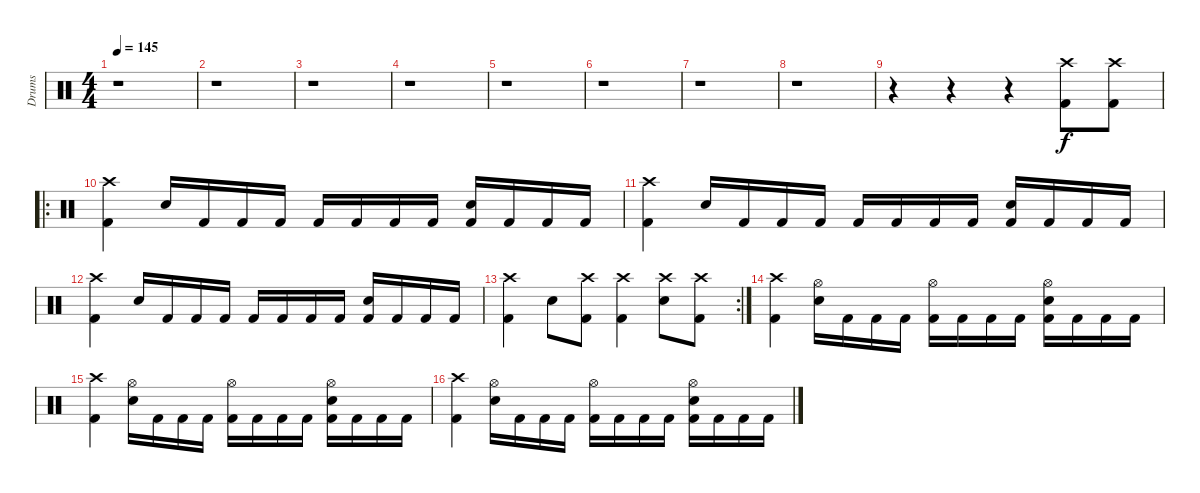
\track ("Drums" "Drums") {instrument percussion}
\staff {score}
\articulation defaults
\ts (4 4)
\tempo 145
\clef neutral
\ks c
r.1{dy f} |
r.1 |
r.1 |
r.1 |
r.1 |
r.1 |
r.1 |
r.1 |
r.4 r.4 r.4 ("Crash high (hit)" "Kick (hit) 2").8 ("Crash high (hit)" "Kick (hit) 2").8 |
\ro
("Crash high (hit)" "Kick (hit) 2").4 "Snare (hit) 2".16 "Kick (hit) 2".16 "Kick (hit) 2".16 "Kick (hit) 2".16 "Kick (hit) 2".16 "Kick (hit) 2".16 "Kick (hit) 2".16 "Kick (hit) 2".16 ("Snare (hit) 2" "Kick (hit) 2").16 "Kick (hit) 2".16 "Kick (hit) 2".16 "Kick (hit) 2".16 |
("Crash high (hit)" "Kick (hit) 2").4 "Snare (hit) 2".16 "Kick (hit) 2".16 "Kick (hit) 2".16 "Kick (hit) 2".16 "Kick (hit) 2".16 "Kick (hit) 2".16 "Kick (hit) 2".16 "Kick (hit) 2".16 ("Snare (hit) 2" "Kick (hit) 2").16 "Kick (hit) 2".16 "Kick (hit) 2".16 "Kick (hit) 2".16 |
("Crash high (hit)" "Kick (hit) 2").4 "Snare (hit) 2".16 "Kick (hit) 2".16 "Kick (hit) 2".16 "Kick (hit) 2".16 "Kick (hit) 2".16 "Kick (hit) 2".16 "Kick (hit) 2".16 "Kick (hit) 2".16 ("Snare (hit) 2" "Kick (hit) 2").16 "Kick (hit) 2".16 "Kick (hit) 2".16 "Kick (hit) 2".16 |
\rc 2
("Crash high (hit)" "Kick (hit) 2").4 "Snare (hit) 2".8 ("Crash high (hit)" "Kick (hit) 2").8 ("Crash high (hit)" "Kick (hit) 2").4 ("Crash high (hit)" "Snare (hit) 2").8 ("Crash high (hit)" "Kick (hit) 2").8 |
("Crash high (hit)" "Kick (hit) 2").4 ("Hi-Hat (open)" "Snare (hit) 2").16 "Kick (hit) 2".16 "Kick (hit) 2".16 "Kick (hit) 2".16 ("Hi-Hat (open)" "Kick (hit) 2").16 "Kick (hit) 2".16 "Kick (hit) 2".16 "Kick (hit) 2".16 ("Hi-Hat (open)" "Snare (hit) 2" "Kick (hit) 2").16 "Kick (hit) 2".16 "Kick (hit) 2".16 "Kick (hit) 2".16 |
("Crash high (hit)" "Kick (hit) 2").4 ("Hi-Hat (open)" "Snare (hit) 2").16 "Kick (hit) 2".16 "Kick (hit) 2".16 "Kick (hit) 2".16 ("Hi-Hat (open)" "Kick (hit) 2").16 "Kick (hit) 2".16 "Kick (hit) 2".16 "Kick (hit) 2".16 ("Hi-Hat (open)" "Snare (hit) 2" "Kick (hit) 2").16 "Kick (hit) 2".16 "Kick (hit) 2".16 "Kick (hit) 2".16 |
("Crash high (hit)" "Kick (hit) 2").4 ("Hi-Hat (open)" "Snare (hit) 2").16 "Kick (hit) 2".16 "Kick (hit) 2".16 "Kick (hit) 2".16 ("Hi-Hat (open)" "Kick (hit) 2").16 "Kick (hit) 2".16 "Kick (hit) 2".16 "Kick (hit) 2".16 ("Hi-Hat (open)" "Snare (hit) 2" "Kick (hit) 2").16 "Kick (hit) 2".16 "Kick (hit) 2".16 "Kick (hit) 2".16
